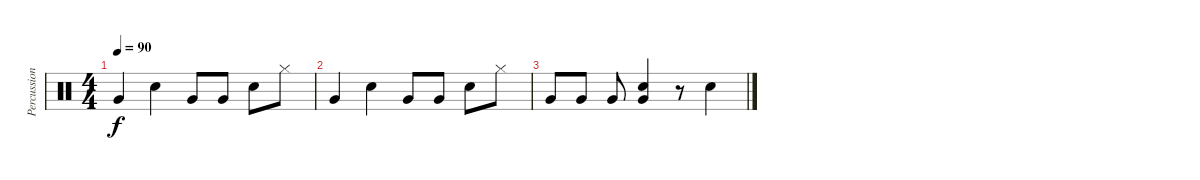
\track ("Percussion" "Percussion") {instrument percussion}
\staff {score}
\articulation defaults
\ts (4 4)
\tempo 90
\clef neutral
\ks c "Very Low Tom (hit)".4{dy f} "Electric Snare (hit)".4 "Very Low Tom (hit)".8 "Very Low Tom (hit)".8 "Electric Snare (hit)".8 "Hi-Hat (closed)".8
|
"Very Low Tom (hit)".4 "Electric Snare (hit)".4 "Very Low Tom (hit)".8 "Very Low Tom (hit)".8 "Electric Snare (hit)".8 "Hi-Hat (closed)".8 |
"Very Low Tom (hit)".8 "Very Low Tom (hit)".8 "Very Low Tom (hit)".8 ("Electric Snare (hit)" "Very Low Tom (hit)").4 r.8 "Electric Snare (hit)".4
